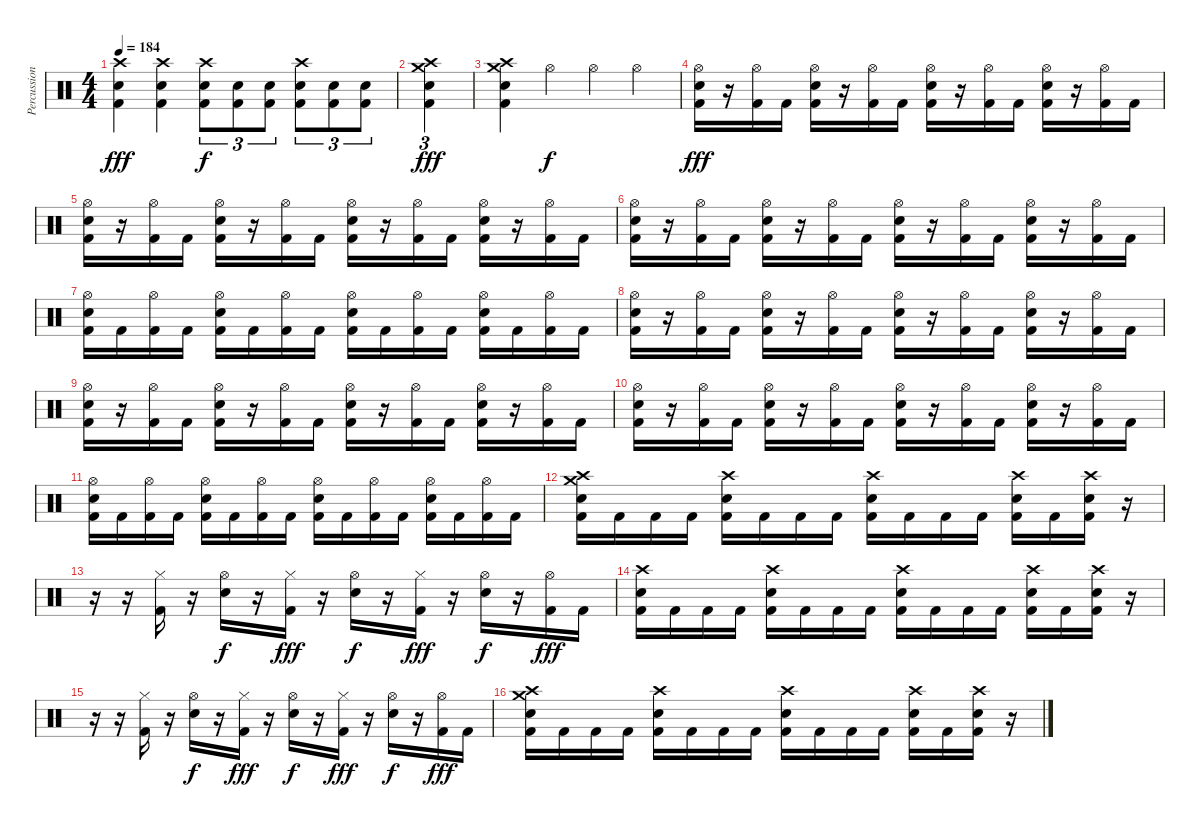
\track ("Percussion" "Percussion") {instrument percussion}
\staff {score}
\articulation defaults
\ts (4 4)
\tempo 184
\clef neutral
\ks c
("Crash high (hit)" "Snare (hit) 2" "Kick (hit) 2").4{dy fff} ("Crash high (hit)" "Snare (hit) 2" "Kick (hit) 2").4 ("Crash high (hit)" "Snare (hit) 2" "Kick (hit) 2").8{tu (3 2) dy f} ("Snare (hit) 2" "Kick (hit) 2").8{tu (3 2)} ("Snare (hit) 2" "Kick (hit) 2").8{tu (3 2)} ("Crash high (hit)" "Snare (hit) 2" "Kick (hit) 2").8{tu (3 2)} ("Snare (hit) 2" "Kick (hit) 2").8{tu (3 2)} ("Snare (hit) 2" "Kick (hit) 2").8{tu (3 2)} |
("Crash high (hit)" "Crash medium (hit)" "Snare (hit) 2" "Kick (hit) 2").4{tu (3 2) dy fff} |
("Crash high (hit)" "Crash medium (hit)" "Snare (hit) 2" "Kick (hit) 2").4 "Hi-Hat (open)".4{dy f} "Hi-Hat (open)".4 "Hi-Hat (open)".4 |
("Hi-Hat (open)" "Snare (hit) 2" "Kick (hit) 2").16{dy fff} r.16 ("Hi-Hat (open)" "Kick (hit) 2").16 "Kick (hit) 2".16 ("Hi-Hat (open)" "Snare (hit) 2" "Kick (hit) 2").16 r.16 ("Hi-Hat (open)" "Kick (hit) 2").16 "Kick (hit) 2".16 ("Hi-Hat (open)" "Snare (hit) 2" "Kick (hit) 2").16 r.16 ("Hi-Hat (open)" "Kick (hit) 2").16 "Kick (hit) 2".16 ("Hi-Hat (open)" "Snare (hit) 2" "Kick (hit) 2").16 r.16 ("Hi-Hat (open)" "Kick (hit) 2").16 "Kick (hit) 2".16 |
("Hi-Hat (open)" "Snare (hit) 2" "Kick (hit) 2").16 r.16 ("Hi-Hat (open)" "Kick (hit) 2").16 "Kick (hit) 2".16 ("Hi-Hat (open)" "Snare (hit) 2" "Kick (hit) 2").16 r.16 ("Hi-Hat (open)" "Kick (hit) 2").16 "Kick (hit) 2".16 ("Hi-Hat (open)" "Snare (hit) 2" "Kick (hit) 2").16 r.16 ("Hi-Hat (open)" "Kick (hit) 2").16 "Kick (hit) 2".16 ("Hi-Hat (open)" "Snare (hit) 2" "Kick (hit) 2").16 r.16 ("Hi-Hat (open)" "Kick (hit) 2").16 "Kick (hit) 2".16 |
("Hi-Hat (open)" "Snare (hit) 2" "Kick (hit) 2").16 r.16 ("Hi-Hat (open)" "Kick (hit) 2").16 "Kick (hit) 2".16 ("Hi-Hat (open)" "Snare (hit) 2" "Kick (hit) 2").16 r.16 ("Hi-Hat (open)" "Kick (hit) 2").16 "Kick (hit) 2".16 ("Hi-Hat (open)" "Snare (hit) 2" "Kick (hit) 2").16 r.16 ("Hi-Hat (open)" "Kick (hit) 2").16 "Kick (hit) 2".16 ("Hi-Hat (open)" "Snare (hit) 2" "Kick (hit) 2").16 r.16 ("Hi-Hat (open)" "Kick (hit) 2").16 "Kick (hit) 2".16 |
("Hi-Hat (open)" "Snare (hit) 2" "Kick (hit) 2").16 "Kick (hit) 2".16 ("Hi-Hat (open)" "Kick (hit) 2").16 "Kick (hit) 2".16 ("Hi-Hat (open)" "Snare (hit) 2" "Kick (hit) 2").16 "Kick (hit) 2".16 ("Hi-Hat (open)" "Kick (hit) 2").16 "Kick (hit) 2".16 ("Hi-Hat (open)" "Snare (hit) 2" "Kick (hit) 2").16 "Kick (hit) 2".16 ("Hi-Hat (open)" "Kick (hit) 2").16 "Kick (hit) 2".16 ("Hi-Hat (open)" "Snare (hit) 2" "Kick (hit) 2").16 "Kick (hit) 2".16 ("Hi-Hat (open)" "Kick (hit) 2").16 "Kick (hit) 2".16 |
("Hi-Hat (open)" "Snare (hit) 2" "Kick (hit) 2").16 r.16 ("Hi-Hat (open)" "Kick (hit) 2").16 "Kick (hit) 2".16 ("Hi-Hat (open)" "Snare (hit) 2" "Kick (hit) 2").16 r.16 ("Hi-Hat (open)" "Kick (hit) 2").16 "Kick (hit) 2".16 ("Hi-Hat (open)" "Snare (hit) 2" "Kick (hit) 2").16 r.16 ("Hi-Hat (open)" "Kick (hit) 2").16 "Kick (hit) 2".16 ("Hi-Hat (open)" "Snare (hit) 2" "Kick (hit) 2").16 r.16 ("Hi-Hat (open)" "Kick (hit) 2").16 "Kick (hit) 2".16 |
("Hi-Hat (open)" "Snare (hit) 2" "Kick (hit) 2").16 r.16 ("Hi-Hat (open)" "Kick (hit) 2").16 "Kick (hit) 2".16 ("Hi-Hat (open)" "Snare (hit) 2" "Kick (hit) 2").16 r.16 ("Hi-Hat (open)" "Kick (hit) 2").16 "Kick (hit) 2".16 ("Hi-Hat (open)" "Snare (hit) 2" "Kick (hit) 2").16 r.16 ("Hi-Hat (open)" "Kick (hit) 2").16 "Kick (hit) 2".16 ("Hi-Hat (open)" "Snare (hit) 2" "Kick (hit) 2").16 r.16 ("Hi-Hat (open)" "Kick (hit) 2").16 "Kick (hit) 2".16 |
("Hi-Hat (open)" "Snare (hit) 2" "Kick (hit) 2").16 r.16 ("Hi-Hat (open)" "Kick (hit) 2").16 "Kick (hit) 2".16 ("Hi-Hat (open)" "Snare (hit) 2" "Kick (hit) 2").16 r.16 ("Hi-Hat (open)" "Kick (hit) 2").16 "Kick (hit) 2".16 ("Hi-Hat (open)" "Snare (hit) 2" "Kick (hit) 2").16 r.16 ("Hi-Hat (open)" "Kick (hit) 2").16 "Kick (hit) 2".16 ("Hi-Hat (open)" "Snare (hit) 2" "Kick (hit) 2").16 r.16 ("Hi-Hat (open)" "Kick (hit) 2").16 "Kick (hit) 2".16 |
("Hi-Hat (open)" "Snare (hit) 2" "Kick (hit) 2").16 "Kick (hit) 2".16 ("Hi-Hat (open)" "Kick (hit) 2").16 "Kick (hit) 2".16 ("Hi-Hat (open)" "Snare (hit) 2" "Kick (hit) 2").16 "Kick (hit) 2".16 ("Hi-Hat (open)" "Kick (hit) 2").16 "Kick (hit) 2".16 ("Hi-Hat (open)" "Snare (hit) 2" "Kick (hit) 2").16 "Kick (hit) 2".16 ("Hi-Hat (open)" "Kick (hit) 2").16 "Kick (hit) 2".16 ("Hi-Hat (open)" "Snare (hit) 2" "Kick (hit) 2").16 "Kick (hit) 2".16 ("Hi-Hat (open)" "Kick (hit) 2").16 "Kick (hit) 2".16 |
("Crash medium (hit)" "Crash high (hit)" "Snare (hit) 2" "Kick (hit) 2").16 "Kick (hit) 2".16 "Kick (hit) 2".16 "Kick (hit) 2".16 ("Crash high (hit)" "Snare (hit) 2" "Kick (hit) 2").16 "Kick (hit) 2".16 "Kick (hit) 2".16 "Kick (hit) 2".16 ("Crash high (hit)" "Snare (hit) 2" "Kick (hit) 2").16 "Kick (hit) 2".16 "Kick (hit) 2".16 "Kick (hit) 2".16 ("Crash high (hit)" "Snare (hit) 2" "Kick (hit) 2").16 "Kick (hit) 2".16 ("Crash high (hit)" "Snare (hit) 2" "Kick (hit) 2").16 r.16 |
r.16 r.16 ("Hi-Hat (closed)" "Kick (hit) 2").16 r.16 ("Hi-Hat (open)" "Snare (hit) 2").16{dy f} r.16 ("Hi-Hat (closed)" "Kick (hit) 2").16{dy fff} r.16 ("Hi-Hat (open)" "Snare (hit) 2").16{dy f} r.16 ("Hi-Hat (closed)" "Kick (hit) 2").16{dy fff} r.16 ("Hi-Hat (open)" "Snare (hit) 2").16{dy f} r.16 ("Hi-Hat (open)" "Kick (hit) 2").16{dy fff} "Kick (hit) 2".16 |
("Crash high (hit)" "Snare (hit) 2" "Kick (hit) 2").16 "Kick (hit) 2".16 "Kick (hit) 2".16 "Kick (hit) 2".16 ("Crash high (hit)" "Snare (hit) 2" "Kick (hit) 2").16 "Kick (hit) 2".16 "Kick (hit) 2".16 "Kick (hit) 2".16 ("Crash high (hit)" "Snare (hit) 2" "Kick (hit) 2").16 "Kick (hit) 2".16 "Kick (hit) 2".16 "Kick (hit) 2".16 ("Crash high (hit)" "Snare (hit) 2" "Kick (hit) 2").16 "Kick (hit) 2".16 ("Crash high (hit)" "Snare (hit) 2" "Kick (hit) 2").16 r.16 |
r.16 r.16 ("Hi-Hat (closed)" "Kick (hit) 2").16 r.16 ("Hi-Hat (open)" "Snare (hit) 2").16{dy f} r.16 ("Hi-Hat (closed)" "Kick (hit) 2").16{dy fff} r.16 ("Hi-Hat (open)" "Snare (hit) 2").16{dy f} r.16 ("Hi-Hat (closed)" "Kick (hit) 2").16{dy fff} r.16 ("Hi-Hat (open)" "Snare (hit) 2").16{dy f} r.16 ("Hi-Hat (open)" "Kick (hit) 2").16{dy fff} "Kick (hit) 2".16 |
("Crash medium (hit)" "Crash high (hit)" "Snare (hit) 2" "Kick (hit) 2").16 "Kick (hit) 2".16 "Kick (hit) 2".16 "Kick (hit) 2".16 ("Crash high (hit)" "Snare (hit) 2" "Kick (hit) 2").16 "Kick (hit) 2".16 "Kick (hit) 2".16 "Kick (hit) 2".16 ("Crash high (hit)" "Snare (hit) 2" "Kick (hit) 2").16 "Kick (hit) 2".16 "Kick (hit) 2".16 "Kick (hit) 2".16 ("Crash high (hit)" "Snare (hit) 2" "Kick (hit) 2").16 "Kick (hit) 2".16 ("Crash high (hit)" "Snare (hit) 2" "Kick (hit) 2").16 r.16
